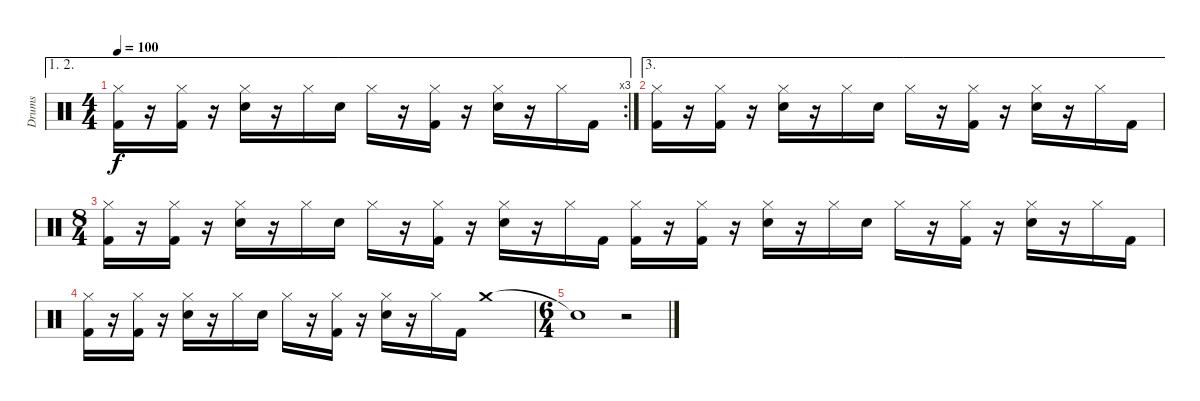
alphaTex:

\track ("Drums" "Drums") {instrument percussion}
\staff {score}
\articulation defaults
\ae (1 2)
\rc 3
\ts (4 4)
\tempo 100
\clef neutral
\ks c
("Kick (hit) 2" "Hi-Hat (closed)").16{dy f} r.16 ("Kick (hit) 2" "Hi-Hat (closed)").16 r.16 ("Electric Snare (hit)" "Hi-Hat (closed)").16 r.16 "Hi-Hat (closed)".16 "Electric Snare (hit)".16 "Hi-Hat (closed)".16 r.16 ("Kick (hit) 2" "Hi-Hat (closed)").16 r.16 ("Electric Snare (hit)" "Hi-Hat (closed)").16 r.16 "Hi-Hat (closed)".16 "Kick (hit) 2".16 |
\ae 3
("Kick (hit) 2" "Hi-Hat (closed)").16 r.16 ("Kick (hit) 2" "Hi-Hat (closed)").16 r.16 ("Electric Snare (hit)" "Hi-Hat (closed)").16 r.16 "Hi-Hat (closed)".16 "Electric Snare (hit)".16 "Hi-Hat (closed)".16 r.16 ("Kick (hit) 2" "Hi-Hat (closed)").16 r.16 ("Electric Snare (hit)" "Hi-Hat (closed)").16 r.16 "Hi-Hat (closed)".16 "Kick (hit) 2".16 |
\ts (8 4)
("Kick (hit) 2" "Hi-Hat (closed)").16 r.16 ("Kick (hit) 2" "Hi-Hat (closed)").16 r.16 ("Electric Snare (hit)" "Hi-Hat (closed)").16 r.16 "Hi-Hat (closed)".16 "Electric Snare (hit)".16 "Hi-Hat (closed)".16 r.16 ("Kick (hit) 2" "Hi-Hat (closed)").16 r.16 ("Electric Snare (hit)" "Hi-Hat (closed)").16 r.16 "Hi-Hat (closed)".16 "Kick (hit) 2".16 ("Kick (hit) 2" "Hi-Hat (closed)").16 r.16 ("Kick (hit) 2" "Hi-Hat (closed)").16 r.16 ("Electric Snare (hit)" "Hi-Hat (closed)").16 r.16 "Hi-Hat (closed)".16 "Electric Snare (hit)".16 "Hi-Hat (closed)".16 r.16 ("Kick (hit) 2" "Hi-Hat (closed)").16 r.16 ("Electric Snare (hit)" "Hi-Hat (closed)").16 r.16 "Hi-Hat (closed)".16 "Kick (hit) 2".16 |
("Kick (hit) 2" "Hi-Hat (closed)").16 r.16 ("Kick (hit) 2" "Hi-Hat (closed)").16 r.16 ("Electric Snare (hit)" "Hi-Hat (closed)").16 r.16 "Hi-Hat (closed)".16 "Electric Snare (hit)".16 "Hi-Hat (closed)".16 r.16 ("Kick (hit) 2" "Hi-Hat (closed)").16 r.16 ("Electric Snare (hit)" "Hi-Hat (closed)").16 r.16 "Hi-Hat (closed)".16 "Kick (hit) 2".16 "Crash medium (hit)".1 |
\ts (6 4)
"Snare (hit)"{t}.1 r.2
